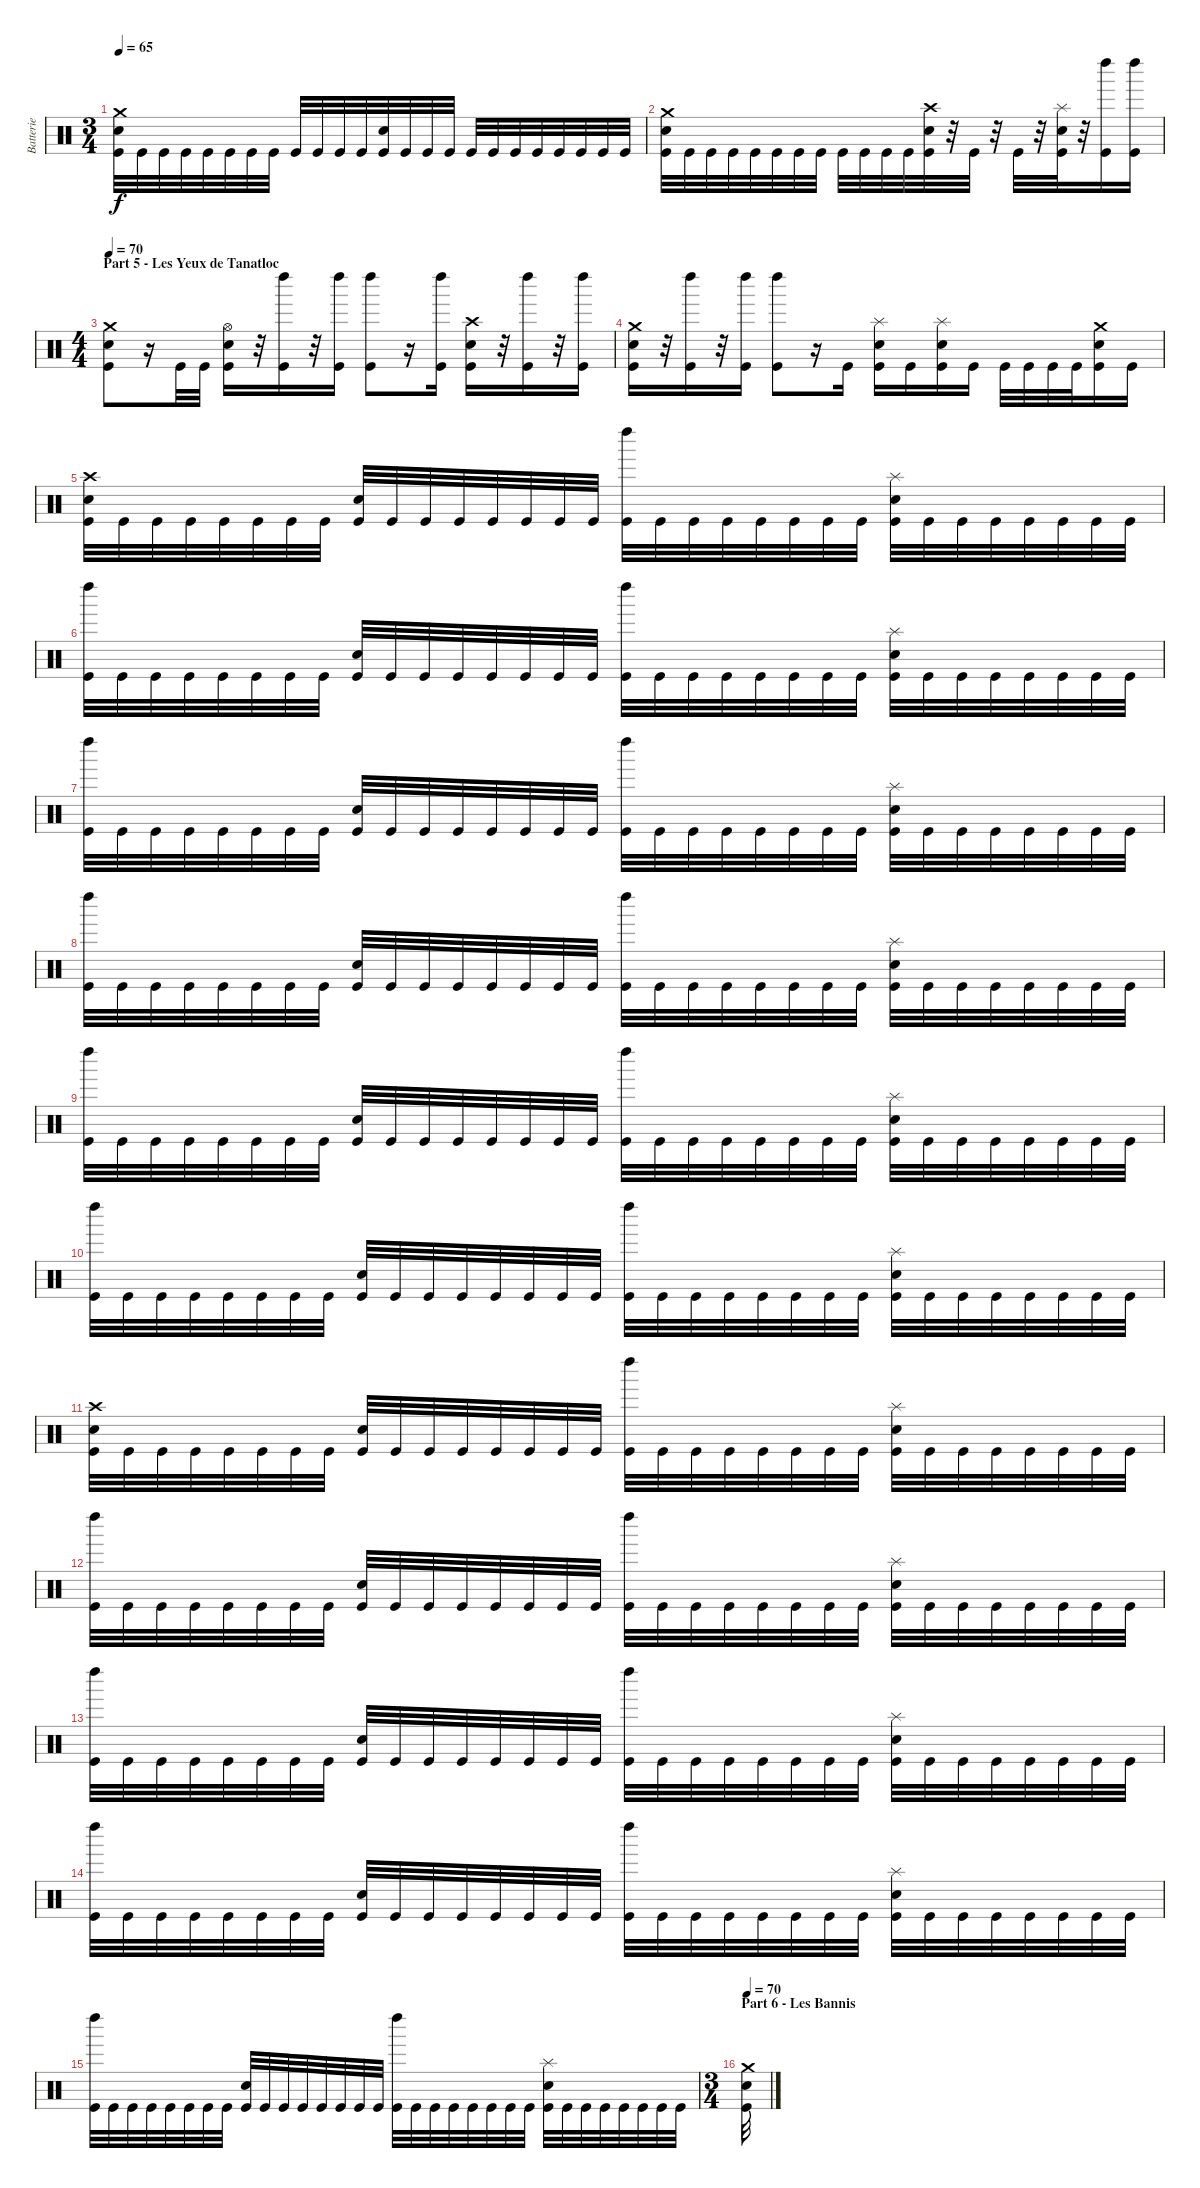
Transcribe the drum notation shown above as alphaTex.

\track ("Batterie" "Batterie") {instrument percussion}
\staff {score}
\articulation defaults
\ts (3 4)
\tempo 65
\clef neutral
\ks c
("Kick (hit)" "Electric Snare (hit)" "Crash medium (hit)").32{dy f} "Kick (hit)".32 "Kick (hit)".32 "Kick (hit)".32 "Kick (hit)".32 "Kick (hit)".32 "Kick (hit)".32 "Kick (hit)".32 "Kick (hit)".32 "Kick (hit)".32 "Kick (hit)".32 "Kick (hit)".32 ("Kick (hit)" "Electric Snare (hit)").32 "Kick (hit)".32 "Kick (hit)".32 "Kick (hit)".32 "Kick (hit)".32 "Kick (hit)".32 "Kick (hit)".32 "Kick (hit)".32 "Kick (hit)".32 "Kick (hit)".32 "Kick (hit)".32 "Kick (hit)".32 |
("Kick (hit)" "Electric Snare (hit)" "Crash medium (hit)").32 "Kick (hit)".32 "Kick (hit)".32 "Kick (hit)".32 "Kick (hit)".32 "Kick (hit)".32 "Kick (hit)".32 "Kick (hit)".32 "Kick (hit)".32 "Kick (hit)".32 "Kick (hit)".32 "Kick (hit)".32 ("Kick (hit)" "Electric Snare (hit)" "Crash high (hit)").32 r.32 "Kick (hit)".32 r.32 "Kick (hit)".32 r.32 ("Kick (hit)" "Electric Snare (hit)" "Splash (hit)").32 r.32 ("Kick (hit)" "Left Maraca (hit)").16 ("Kick (hit)" "Left Maraca (hit)").16 |
\ts (4 4)
\section ("" "Part 5 - Les Yeux de Tanatloc")
\tempo 70
("Kick (hit)" "Electric Snare (hit)" "Crash medium (hit)").8 r.16 "Kick (hit)".32 "Kick (hit)".32 ("Kick (hit)" "Electric Snare (hit)" "Hi-Hat (open)").16 r.32 ("Kick (hit)" "Left Maraca (hit)").16 r.32 ("Kick (hit)" "Left Maraca (hit)").16 ("Kick (hit)" "Left Maraca (hit)").8 r.16 ("Kick (hit)" "Left Maraca (hit)").16 ("Kick (hit)" "Electric Snare (hit)" "Crash high (hit)").16 r.32 ("Kick (hit)" "Left Maraca (hit)").16 r.32 ("Kick (hit)" "Left Maraca (hit)").16 |
("Kick (hit)" "Electric Snare (hit)" "Crash medium (hit)").16 r.32 ("Kick (hit)" "Left Maraca (hit)").16 r.32 ("Kick (hit)" "Left Maraca (hit)").16 ("Kick (hit)" "Left Maraca (hit)").8 r.16 "Kick (hit)".16 ("Kick (hit)" "Electric Snare (hit)" "Splash (hit)").16 "Kick (hit)".16 ("Kick (hit)" "Electric Snare (hit)" "Splash (hit)").16 "Kick (hit)".16 "Kick (hit)".32 "Kick (hit)".32 "Kick (hit)".32 "Kick (hit)".32 ("Kick (hit)" "Electric Snare (hit)" "Crash medium (hit)").16 "Kick (hit)".16 |
("Kick (hit)" "Electric Snare (hit)" "Crash high (hit)").32 "Kick (hit)".32 "Kick (hit)".32 "Kick (hit)".32 "Kick (hit)".32 "Kick (hit)".32 "Kick (hit)".32 "Kick (hit)".32 ("Kick (hit)" "Electric Snare (hit)").32 "Kick (hit)".32 "Kick (hit)".32 "Kick (hit)".32 "Kick (hit)".32 "Kick (hit)".32 "Kick (hit)".32 "Kick (hit)".32 ("Kick (hit)" "Left Maraca (hit)").32 "Kick (hit)".32 "Kick (hit)".32 "Kick (hit)".32 "Kick (hit)".32 "Kick (hit)".32 "Kick (hit)".32 "Kick (hit)".32 ("Kick (hit)" "Electric Snare (hit)" "Splash (hit)").32 "Kick (hit)".32 "Kick (hit)".32 "Kick (hit)".32 "Kick (hit)".32 "Kick (hit)".32 "Kick (hit)".32 "Kick (hit)".32 |
("Kick (hit)" "Left Maraca (hit)").32 "Kick (hit)".32 "Kick (hit)".32 "Kick (hit)".32 "Kick (hit)".32 "Kick (hit)".32 "Kick (hit)".32 "Kick (hit)".32 ("Kick (hit)" "Electric Snare (hit)").32 "Kick (hit)".32 "Kick (hit)".32 "Kick (hit)".32 "Kick (hit)".32 "Kick (hit)".32 "Kick (hit)".32 "Kick (hit)".32 ("Kick (hit)" "Left Maraca (hit)").32 "Kick (hit)".32 "Kick (hit)".32 "Kick (hit)".32 "Kick (hit)".32 "Kick (hit)".32 "Kick (hit)".32 "Kick (hit)".32 ("Kick (hit)" "Electric Snare (hit)" "Splash (hit)").32 "Kick (hit)".32 "Kick (hit)".32 "Kick (hit)".32 "Kick (hit)".32 "Kick (hit)".32 "Kick (hit)".32 "Kick (hit)".32 |
("Kick (hit)" "Left Maraca (hit)").32 "Kick (hit)".32 "Kick (hit)".32 "Kick (hit)".32 "Kick (hit)".32 "Kick (hit)".32 "Kick (hit)".32 "Kick (hit)".32 ("Kick (hit)" "Electric Snare (hit)").32 "Kick (hit)".32 "Kick (hit)".32 "Kick (hit)".32 "Kick (hit)".32 "Kick (hit)".32 "Kick (hit)".32 "Kick (hit)".32 ("Kick (hit)" "Left Maraca (hit)").32 "Kick (hit)".32 "Kick (hit)".32 "Kick (hit)".32 "Kick (hit)".32 "Kick (hit)".32 "Kick (hit)".32 "Kick (hit)".32 ("Kick (hit)" "Electric Snare (hit)" "Splash (hit)").32 "Kick (hit)".32 "Kick (hit)".32 "Kick (hit)".32 "Kick (hit)".32 "Kick (hit)".32 "Kick (hit)".32 "Kick (hit)".32 |
("Kick (hit)" "Left Maraca (hit)").32 "Kick (hit)".32 "Kick (hit)".32 "Kick (hit)".32 "Kick (hit)".32 "Kick (hit)".32 "Kick (hit)".32 "Kick (hit)".32 ("Kick (hit)" "Electric Snare (hit)").32 "Kick (hit)".32 "Kick (hit)".32 "Kick (hit)".32 "Kick (hit)".32 "Kick (hit)".32 "Kick (hit)".32 "Kick (hit)".32 ("Kick (hit)" "Left Maraca (hit)").32 "Kick (hit)".32 "Kick (hit)".32 "Kick (hit)".32 "Kick (hit)".32 "Kick (hit)".32 "Kick (hit)".32 "Kick (hit)".32 ("Kick (hit)" "Electric Snare (hit)" "Splash (hit)").32 "Kick (hit)".32 "Kick (hit)".32 "Kick (hit)".32 "Kick (hit)".32 "Kick (hit)".32 "Kick (hit)".32 "Kick (hit)".32 |
("Kick (hit)" "Left Maraca (hit)").32 "Kick (hit)".32 "Kick (hit)".32 "Kick (hit)".32 "Kick (hit)".32 "Kick (hit)".32 "Kick (hit)".32 "Kick (hit)".32 ("Kick (hit)" "Electric Snare (hit)").32 "Kick (hit)".32 "Kick (hit)".32 "Kick (hit)".32 "Kick (hit)".32 "Kick (hit)".32 "Kick (hit)".32 "Kick (hit)".32 ("Kick (hit)" "Left Maraca (hit)").32 "Kick (hit)".32 "Kick (hit)".32 "Kick (hit)".32 "Kick (hit)".32 "Kick (hit)".32 "Kick (hit)".32 "Kick (hit)".32 ("Kick (hit)" "Electric Snare (hit)" "Splash (hit)").32 "Kick (hit)".32 "Kick (hit)".32 "Kick (hit)".32 "Kick (hit)".32 "Kick (hit)".32 "Kick (hit)".32 "Kick (hit)".32 |
("Kick (hit)" "Left Maraca (hit)").32 "Kick (hit)".32 "Kick (hit)".32 "Kick (hit)".32 "Kick (hit)".32 "Kick (hit)".32 "Kick (hit)".32 "Kick (hit)".32 ("Kick (hit)" "Electric Snare (hit)").32 "Kick (hit)".32 "Kick (hit)".32 "Kick (hit)".32 "Kick (hit)".32 "Kick (hit)".32 "Kick (hit)".32 "Kick (hit)".32 ("Kick (hit)" "Left Maraca (hit)").32 "Kick (hit)".32 "Kick (hit)".32 "Kick (hit)".32 "Kick (hit)".32 "Kick (hit)".32 "Kick (hit)".32 "Kick (hit)".32 ("Kick (hit)" "Electric Snare (hit)" "Splash (hit)").32 "Kick (hit)".32 "Kick (hit)".32 "Kick (hit)".32 "Kick (hit)".32 "Kick (hit)".32 "Kick (hit)".32 "Kick (hit)".32 |
("Kick (hit)" "Electric Snare (hit)" "Crash high (hit)").32 "Kick (hit)".32 "Kick (hit)".32 "Kick (hit)".32 "Kick (hit)".32 "Kick (hit)".32 "Kick (hit)".32 "Kick (hit)".32 ("Kick (hit)" "Electric Snare (hit)").32 "Kick (hit)".32 "Kick (hit)".32 "Kick (hit)".32 "Kick (hit)".32 "Kick (hit)".32 "Kick (hit)".32 "Kick (hit)".32 ("Kick (hit)" "Left Maraca (hit)").32 "Kick (hit)".32 "Kick (hit)".32 "Kick (hit)".32 "Kick (hit)".32 "Kick (hit)".32 "Kick (hit)".32 "Kick (hit)".32 ("Kick (hit)" "Electric Snare (hit)" "Splash (hit)").32 "Kick (hit)".32 "Kick (hit)".32 "Kick (hit)".32 "Kick (hit)".32 "Kick (hit)".32 "Kick (hit)".32 "Kick (hit)".32 |
("Kick (hit)" "Left Maraca (hit)").32 "Kick (hit)".32 "Kick (hit)".32 "Kick (hit)".32 "Kick (hit)".32 "Kick (hit)".32 "Kick (hit)".32 "Kick (hit)".32 ("Kick (hit)" "Electric Snare (hit)").32 "Kick (hit)".32 "Kick (hit)".32 "Kick (hit)".32 "Kick (hit)".32 "Kick (hit)".32 "Kick (hit)".32 "Kick (hit)".32 ("Kick (hit)" "Left Maraca (hit)").32 "Kick (hit)".32 "Kick (hit)".32 "Kick (hit)".32 "Kick (hit)".32 "Kick (hit)".32 "Kick (hit)".32 "Kick (hit)".32 ("Kick (hit)" "Electric Snare (hit)" "Splash (hit)").32 "Kick (hit)".32 "Kick (hit)".32 "Kick (hit)".32 "Kick (hit)".32 "Kick (hit)".32 "Kick (hit)".32 "Kick (hit)".32 |
("Kick (hit)" "Left Maraca (hit)").32 "Kick (hit)".32 "Kick (hit)".32 "Kick (hit)".32 "Kick (hit)".32 "Kick (hit)".32 "Kick (hit)".32 "Kick (hit)".32 ("Kick (hit)" "Electric Snare (hit)").32 "Kick (hit)".32 "Kick (hit)".32 "Kick (hit)".32 "Kick (hit)".32 "Kick (hit)".32 "Kick (hit)".32 "Kick (hit)".32 ("Kick (hit)" "Left Maraca (hit)").32 "Kick (hit)".32 "Kick (hit)".32 "Kick (hit)".32 "Kick (hit)".32 "Kick (hit)".32 "Kick (hit)".32 "Kick (hit)".32 ("Kick (hit)" "Electric Snare (hit)" "Splash (hit)").32 "Kick (hit)".32 "Kick (hit)".32 "Kick (hit)".32 "Kick (hit)".32 "Kick (hit)".32 "Kick (hit)".32 "Kick (hit)".32 |
("Kick (hit)" "Left Maraca (hit)").32 "Kick (hit)".32 "Kick (hit)".32 "Kick (hit)".32 "Kick (hit)".32 "Kick (hit)".32 "Kick (hit)".32 "Kick (hit)".32 ("Kick (hit)" "Electric Snare (hit)").32 "Kick (hit)".32 "Kick (hit)".32 "Kick (hit)".32 "Kick (hit)".32 "Kick (hit)".32 "Kick (hit)".32 "Kick (hit)".32 ("Kick (hit)" "Left Maraca (hit)").32 "Kick (hit)".32 "Kick (hit)".32 "Kick (hit)".32 "Kick (hit)".32 "Kick (hit)".32 "Kick (hit)".32 "Kick (hit)".32 ("Kick (hit)" "Electric Snare (hit)" "Splash (hit)").32 "Kick (hit)".32 "Kick (hit)".32 "Kick (hit)".32 "Kick (hit)".32 "Kick (hit)".32 "Kick (hit)".32 "Kick (hit)".32 |
("Kick (hit)" "Left Maraca (hit)").32 "Kick (hit)".32 "Kick (hit)".32 "Kick (hit)".32 "Kick (hit)".32 "Kick (hit)".32 "Kick (hit)".32 "Kick (hit)".32 ("Kick (hit)" "Electric Snare (hit)").32 "Kick (hit)".32 "Kick (hit)".32 "Kick (hit)".32 "Kick (hit)".32 "Kick (hit)".32 "Kick (hit)".32 "Kick (hit)".32 ("Kick (hit)" "Left Maraca (hit)").32 "Kick (hit)".32 "Kick (hit)".32 "Kick (hit)".32 "Kick (hit)".32 "Kick (hit)".32 "Kick (hit)".32 "Kick (hit)".32 ("Kick (hit)" "Electric Snare (hit)" "Splash (hit)").32 "Kick (hit)".32 "Kick (hit)".32 "Kick (hit)".32 "Kick (hit)".32 "Kick (hit)".32 "Kick (hit)".32 "Kick (hit)".32 |
\ts (3 4)
\section ("" "Part 6 - Les Bannis")
\tempo 70
("Kick (hit)" "Electric Snare (hit)" "Crash medium (hit)").32
